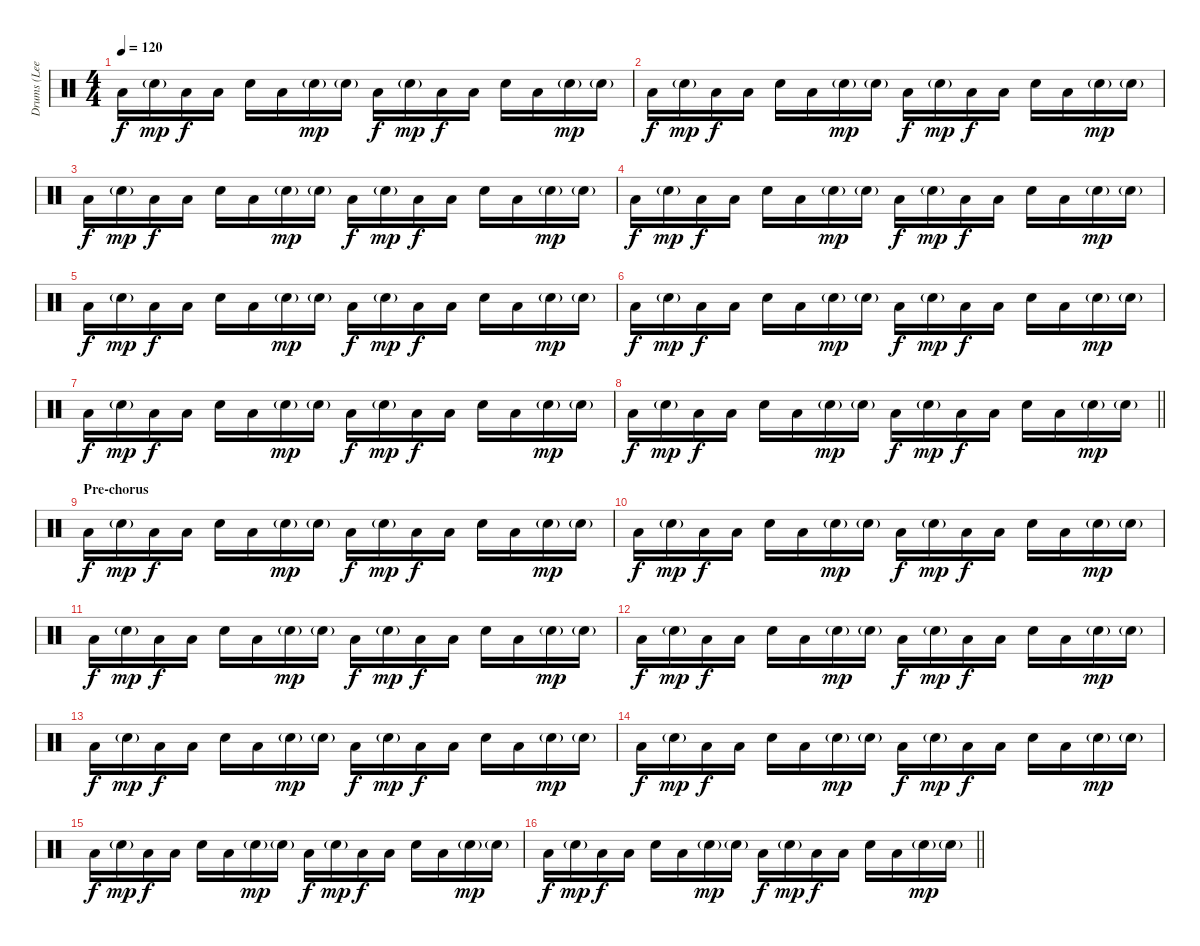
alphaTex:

\track ("Drums (Lee)" "Drums (Lee") {instrument percussion}
\staff {score}
\articulation defaults
\ts (4 4)
\tempo 120
\clef neutral
\ks c "Low Floor Tom (hit)".16{dy f} "Snare (hit) 2"{g}.16{dy mp} "Low Floor Tom (hit)".16{dy f} "Low Floor Tom (hit)".16 "Electric Snare (hit)".16 "Low Floor Tom (hit)".16 "Snare (hit) 2"{g}.16{dy mp} "Snare (hit) 2"{g}.16 "Low Floor Tom (hit)".16{dy f} "Snare (hit) 2"{g}.16{dy mp} "Low Floor Tom (hit)".16{dy f} "Low Floor Tom (hit)".16 "Electric Snare (hit)".16 "Low Floor Tom (hit)".16 "Snare (hit) 2"{g}.16{dy mp} "Snare (hit) 2"{g}.16
|
"Low Floor Tom (hit)".16{dy f} "Snare (hit) 2"{g}.16{dy mp} "Low Floor Tom (hit)".16{dy f} "Low Floor Tom (hit)".16 "Electric Snare (hit)".16 "Low Floor Tom (hit)".16 "Snare (hit) 2"{g}.16{dy mp} "Snare (hit) 2"{g}.16 "Low Floor Tom (hit)".16{dy f} "Snare (hit) 2"{g}.16{dy mp} "Low Floor Tom (hit)".16{dy f} "Low Floor Tom (hit)".16 "Electric Snare (hit)".16 "Low Floor Tom (hit)".16 "Snare (hit) 2"{g}.16{dy mp} "Snare (hit) 2"{g}.16 |
"Low Floor Tom (hit)".16{dy f} "Snare (hit) 2"{g}.16{dy mp} "Low Floor Tom (hit)".16{dy f} "Low Floor Tom (hit)".16 "Electric Snare (hit)".16 "Low Floor Tom (hit)".16 "Snare (hit) 2"{g}.16{dy mp} "Snare (hit) 2"{g}.16 "Low Floor Tom (hit)".16{dy f} "Snare (hit) 2"{g}.16{dy mp} "Low Floor Tom (hit)".16{dy f} "Low Floor Tom (hit)".16 "Electric Snare (hit)".16 "Low Floor Tom (hit)".16 "Snare (hit) 2"{g}.16{dy mp} "Snare (hit) 2"{g}.16 |
"Low Floor Tom (hit)".16{dy f} "Snare (hit) 2"{g}.16{dy mp} "Low Floor Tom (hit)".16{dy f} "Low Floor Tom (hit)".16 "Electric Snare (hit)".16 "Low Floor Tom (hit)".16 "Snare (hit) 2"{g}.16{dy mp} "Snare (hit) 2"{g}.16 "Low Floor Tom (hit)".16{dy f} "Snare (hit) 2"{g}.16{dy mp} "Low Floor Tom (hit)".16{dy f} "Low Floor Tom (hit)".16 "Electric Snare (hit)".16 "Low Floor Tom (hit)".16 "Snare (hit) 2"{g}.16{dy mp} "Snare (hit) 2"{g}.16 |
"Low Floor Tom (hit)".16{dy f} "Snare (hit) 2"{g}.16{dy mp} "Low Floor Tom (hit)".16{dy f} "Low Floor Tom (hit)".16 "Electric Snare (hit)".16 "Low Floor Tom (hit)".16 "Snare (hit) 2"{g}.16{dy mp} "Snare (hit) 2"{g}.16 "Low Floor Tom (hit)".16{dy f} "Snare (hit) 2"{g}.16{dy mp} "Low Floor Tom (hit)".16{dy f} "Low Floor Tom (hit)".16 "Electric Snare (hit)".16 "Low Floor Tom (hit)".16 "Snare (hit) 2"{g}.16{dy mp} "Snare (hit) 2"{g}.16 |
"Low Floor Tom (hit)".16{dy f} "Snare (hit) 2"{g}.16{dy mp} "Low Floor Tom (hit)".16{dy f} "Low Floor Tom (hit)".16 "Electric Snare (hit)".16 "Low Floor Tom (hit)".16 "Snare (hit) 2"{g}.16{dy mp} "Snare (hit) 2"{g}.16 "Low Floor Tom (hit)".16{dy f} "Snare (hit) 2"{g}.16{dy mp} "Low Floor Tom (hit)".16{dy f} "Low Floor Tom (hit)".16 "Electric Snare (hit)".16 "Low Floor Tom (hit)".16 "Snare (hit) 2"{g}.16{dy mp} "Snare (hit) 2"{g}.16 |
"Low Floor Tom (hit)".16{dy f} "Snare (hit) 2"{g}.16{dy mp} "Low Floor Tom (hit)".16{dy f} "Low Floor Tom (hit)".16 "Electric Snare (hit)".16 "Low Floor Tom (hit)".16 "Snare (hit) 2"{g}.16{dy mp} "Snare (hit) 2"{g}.16 "Low Floor Tom (hit)".16{dy f} "Snare (hit) 2"{g}.16{dy mp} "Low Floor Tom (hit)".16{dy f} "Low Floor Tom (hit)".16 "Electric Snare (hit)".16 "Low Floor Tom (hit)".16 "Snare (hit) 2"{g}.16{dy mp} "Snare (hit) 2"{g}.16 |
\barLineRight lightlight "Low Floor Tom (hit)".16{dy f} "Snare (hit) 2"{g}.16{dy mp} "Low Floor Tom (hit)".16{dy f} "Low Floor Tom (hit)".16 "Electric Snare (hit)".16 "Low Floor Tom (hit)".16 "Snare (hit) 2"{g}.16{dy mp} "Snare (hit) 2"{g}.16 "Low Floor Tom (hit)".16{dy f} "Snare (hit) 2"{g}.16{dy mp} "Low Floor Tom (hit)".16{dy f} "Low Floor Tom (hit)".16 "Electric Snare (hit)".16 "Low Floor Tom (hit)".16 "Snare (hit) 2"{g}.16{dy mp} "Snare (hit) 2"{g}.16
|
\section ("" "Pre-chorus")
"Low Floor Tom (hit)".16{dy f} "Snare (hit) 2"{g}.16{dy mp} "Low Floor Tom (hit)".16{dy f} "Low Floor Tom (hit)".16 "Electric Snare (hit)".16 "Low Floor Tom (hit)".16 "Snare (hit) 2"{g}.16{dy mp} "Snare (hit) 2"{g}.16 "Low Floor Tom (hit)".16{dy f} "Snare (hit) 2"{g}.16{dy mp} "Low Floor Tom (hit)".16{dy f} "Low Floor Tom (hit)".16 "Electric Snare (hit)".16 "Low Floor Tom (hit)".16 "Snare (hit) 2"{g}.16{dy mp} "Snare (hit) 2"{g}.16 |
"Low Floor Tom (hit)".16{dy f} "Snare (hit) 2"{g}.16{dy mp} "Low Floor Tom (hit)".16{dy f} "Low Floor Tom (hit)".16 "Electric Snare (hit)".16 "Low Floor Tom (hit)".16 "Snare (hit) 2"{g}.16{dy mp} "Snare (hit) 2"{g}.16 "Low Floor Tom (hit)".16{dy f} "Snare (hit) 2"{g}.16{dy mp} "Low Floor Tom (hit)".16{dy f} "Low Floor Tom (hit)".16 "Electric Snare (hit)".16 "Low Floor Tom (hit)".16 "Snare (hit) 2"{g}.16{dy mp} "Snare (hit) 2"{g}.16 |
"Low Floor Tom (hit)".16{dy f} "Snare (hit) 2"{g}.16{dy mp} "Low Floor Tom (hit)".16{dy f} "Low Floor Tom (hit)".16 "Electric Snare (hit)".16 "Low Floor Tom (hit)".16 "Snare (hit) 2"{g}.16{dy mp} "Snare (hit) 2"{g}.16 "Low Floor Tom (hit)".16{dy f} "Snare (hit) 2"{g}.16{dy mp} "Low Floor Tom (hit)".16{dy f} "Low Floor Tom (hit)".16 "Electric Snare (hit)".16 "Low Floor Tom (hit)".16 "Snare (hit) 2"{g}.16{dy mp} "Snare (hit) 2"{g}.16 |
"Low Floor Tom (hit)".16{dy f} "Snare (hit) 2"{g}.16{dy mp} "Low Floor Tom (hit)".16{dy f} "Low Floor Tom (hit)".16 "Electric Snare (hit)".16 "Low Floor Tom (hit)".16 "Snare (hit) 2"{g}.16{dy mp} "Snare (hit) 2"{g}.16 "Low Floor Tom (hit)".16{dy f} "Snare (hit) 2"{g}.16{dy mp} "Low Floor Tom (hit)".16{dy f} "Low Floor Tom (hit)".16 "Electric Snare (hit)".16 "Low Floor Tom (hit)".16 "Snare (hit) 2"{g}.16{dy mp} "Snare (hit) 2"{g}.16 |
"Low Floor Tom (hit)".16{dy f} "Snare (hit) 2"{g}.16{dy mp} "Low Floor Tom (hit)".16{dy f} "Low Floor Tom (hit)".16 "Electric Snare (hit)".16 "Low Floor Tom (hit)".16 "Snare (hit) 2"{g}.16{dy mp} "Snare (hit) 2"{g}.16 "Low Floor Tom (hit)".16{dy f} "Snare (hit) 2"{g}.16{dy mp} "Low Floor Tom (hit)".16{dy f} "Low Floor Tom (hit)".16 "Electric Snare (hit)".16 "Low Floor Tom (hit)".16 "Snare (hit) 2"{g}.16{dy mp} "Snare (hit) 2"{g}.16 |
"Low Floor Tom (hit)".16{dy f} "Snare (hit) 2"{g}.16{dy mp} "Low Floor Tom (hit)".16{dy f} "Low Floor Tom (hit)".16 "Electric Snare (hit)".16 "Low Floor Tom (hit)".16 "Snare (hit) 2"{g}.16{dy mp} "Snare (hit) 2"{g}.16 "Low Floor Tom (hit)".16{dy f} "Snare (hit) 2"{g}.16{dy mp} "Low Floor Tom (hit)".16{dy f} "Low Floor Tom (hit)".16 "Electric Snare (hit)".16 "Low Floor Tom (hit)".16 "Snare (hit) 2"{g}.16{dy mp} "Snare (hit) 2"{g}.16 |
"Low Floor Tom (hit)".16{dy f} "Snare (hit) 2"{g}.16{dy mp} "Low Floor Tom (hit)".16{dy f} "Low Floor Tom (hit)".16 "Electric Snare (hit)".16 "Low Floor Tom (hit)".16 "Snare (hit) 2"{g}.16{dy mp} "Snare (hit) 2"{g}.16 "Low Floor Tom (hit)".16{dy f} "Snare (hit) 2"{g}.16{dy mp} "Low Floor Tom (hit)".16{dy f} "Low Floor Tom (hit)".16 "Electric Snare (hit)".16 "Low Floor Tom (hit)".16 "Snare (hit) 2"{g}.16{dy mp} "Snare (hit) 2"{g}.16 |
\barLineRight lightlight "Low Floor Tom (hit)".16{dy f} "Snare (hit) 2"{g}.16{dy mp} "Low Floor Tom (hit)".16{dy f} "Low Floor Tom (hit)".16 "Electric Snare (hit)".16 "Low Floor Tom (hit)".16 "Snare (hit) 2"{g}.16{dy mp} "Snare (hit) 2"{g}.16 "Low Floor Tom (hit)".16{dy f} "Snare (hit) 2"{g}.16{dy mp} "Low Floor Tom (hit)".16{dy f} "Low Floor Tom (hit)".16 "Electric Snare (hit)".16 "Low Floor Tom (hit)".16 "Snare (hit) 2"{g}.16{dy mp} "Snare (hit) 2"{g}.16
